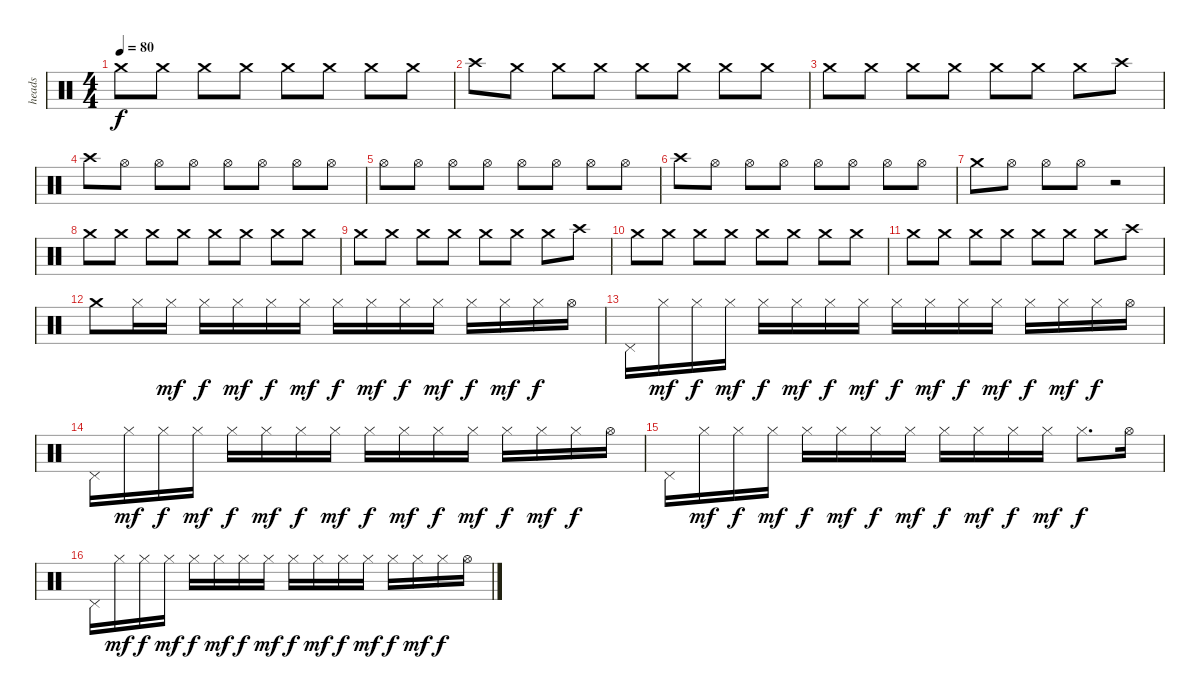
\track ("heads" "heads") {instrument percussion}
\staff {score}
\articulation defaults
\ts (4 4)
\tempo 80
\clef neutral
\ks c "Crash medium (hit)".8{dy f} "Crash medium (hit)".8 "Crash medium (hit)".8 "Crash medium (hit)".8 "Crash medium (hit)".8 "Crash medium (hit)".8 "Crash medium (hit)".8 "Crash medium (hit)".8
|
"Crash high (hit)".8 "Crash medium (hit)".8 "Crash medium (hit)".8 "Crash medium (hit)".8 "Crash medium (hit)".8 "Crash medium (hit)".8 "Crash medium (hit)".8 "Crash medium (hit)".8 |
"Crash medium (hit)".8 "Crash medium (hit)".8 "Crash medium (hit)".8 "Crash medium (hit)".8 "Crash medium (hit)".8 "Crash medium (hit)".8 "Crash medium (hit)".8 "Crash high (hit)".8 |
"Crash high (hit)".8 "Hi-Hat (open)".8 "Hi-Hat (open)".8 "Hi-Hat (open)".8 "Hi-Hat (open)".8 "Hi-Hat (open)".8 "Hi-Hat (open)".8 "Hi-Hat (open)".8 |
"Hi-Hat (open)".8 "Hi-Hat (open)".8 "Hi-Hat (open)".8 "Hi-Hat (open)".8 "Hi-Hat (open)".8 "Hi-Hat (open)".8 "Hi-Hat (open)".8 "Hi-Hat (open)".8 |
"Crash high (hit)".8 "Hi-Hat (open)".8 "Hi-Hat (open)".8 "Hi-Hat (open)".8 "Hi-Hat (open)".8 "Hi-Hat (open)".8 "Hi-Hat (open)".8 "Hi-Hat (open)".8 |
"Crash medium (hit)".8 "Hi-Hat (open)".8 "Hi-Hat (open)".8 "Hi-Hat (open)".8 r.2 |
"Crash medium (hit)".8 "Crash medium (hit)".8 "Crash medium (hit)".8 "Crash medium (hit)".8 "Crash medium (hit)".8 "Crash medium (hit)".8 "Crash medium (hit)".8 "Crash medium (hit)".8 |
"Crash medium (hit)".8 "Crash medium (hit)".8 "Crash medium (hit)".8 "Crash medium (hit)".8 "Crash medium (hit)".8 "Crash medium (hit)".8 "Crash medium (hit)".8 "Crash high (hit)".8 |
"Crash medium (hit)".8 "Crash medium (hit)".8 "Crash medium (hit)".8 "Crash medium (hit)".8 "Crash medium (hit)".8 "Crash medium (hit)".8 "Crash medium (hit)".8 "Crash medium (hit)".8 |
"Crash medium (hit)".8 "Crash medium (hit)".8 "Crash medium (hit)".8 "Crash medium (hit)".8 "Crash medium (hit)".8 "Crash medium (hit)".8 "Crash medium (hit)".8 "Crash high (hit)".8 |
"Crash medium (hit)".8 "Hi-Hat (closed)".16 "Hi-Hat (closed)".16{dy mf} "Hi-Hat (closed)".16{dy f} "Hi-Hat (closed)".16{dy mf} "Hi-Hat (closed)".16{dy f} "Hi-Hat (closed)".16{dy mf} "Hi-Hat (closed)".16{dy f} "Hi-Hat (closed)".16{dy mf} "Hi-Hat (closed)".16{dy f} "Hi-Hat (closed)".16{dy mf} "Hi-Hat (closed)".16{dy f} "Hi-Hat (closed)".16{dy mf} "Hi-Hat (closed)".16{dy f} "Hi-Hat (open)".16 |
"Pedal Hi-Hat (hit)".16 "Hi-Hat (closed)".16{dy mf} "Hi-Hat (closed)".16{dy f} "Hi-Hat (closed)".16{dy mf} "Hi-Hat (closed)".16{dy f} "Hi-Hat (closed)".16{dy mf} "Hi-Hat (closed)".16{dy f} "Hi-Hat (closed)".16{dy mf} "Hi-Hat (closed)".16{dy f} "Hi-Hat (closed)".16{dy mf} "Hi-Hat (closed)".16{dy f} "Hi-Hat (closed)".16{dy mf} "Hi-Hat (closed)".16{dy f} "Hi-Hat (closed)".16{dy mf} "Hi-Hat (closed)".16{dy f} "Hi-Hat (open)".16 |
"Pedal Hi-Hat (hit)".16 "Hi-Hat (closed)".16{dy mf} "Hi-Hat (closed)".16{dy f} "Hi-Hat (closed)".16{dy mf} "Hi-Hat (closed)".16{dy f} "Hi-Hat (closed)".16{dy mf} "Hi-Hat (closed)".16{dy f} "Hi-Hat (closed)".16{dy mf} "Hi-Hat (closed)".16{dy f} "Hi-Hat (closed)".16{dy mf} "Hi-Hat (closed)".16{dy f} "Hi-Hat (closed)".16{dy mf} "Hi-Hat (closed)".16{dy f} "Hi-Hat (closed)".16{dy mf} "Hi-Hat (closed)".16{dy f} "Hi-Hat (open)".16 |
"Pedal Hi-Hat (hit)".16 "Hi-Hat (closed)".16{dy mf} "Hi-Hat (closed)".16{dy f} "Hi-Hat (closed)".16{dy mf} "Hi-Hat (closed)".16{dy f} "Hi-Hat (closed)".16{dy mf} "Hi-Hat (closed)".16{dy f} "Hi-Hat (closed)".16{dy mf} "Hi-Hat (closed)".16{dy f} "Hi-Hat (closed)".16{dy mf} "Hi-Hat (closed)".16{dy f} "Hi-Hat (closed)".16{dy mf} "Hi-Hat (closed)".8{d dy f} "Hi-Hat (open)".16 |
"Pedal Hi-Hat (hit)".16 "Hi-Hat (closed)".16{dy mf} "Hi-Hat (closed)".16{dy f} "Hi-Hat (closed)".16{dy mf} "Hi-Hat (closed)".16{dy f} "Hi-Hat (closed)".16{dy mf} "Hi-Hat (closed)".16{dy f} "Hi-Hat (closed)".16{dy mf} "Hi-Hat (closed)".16{dy f} "Hi-Hat (closed)".16{dy mf} "Hi-Hat (closed)".16{dy f} "Hi-Hat (closed)".16{dy mf} "Hi-Hat (closed)".16{dy f} "Hi-Hat (closed)".16{dy mf} "Hi-Hat (closed)".16{dy f} "Hi-Hat (open)".16
